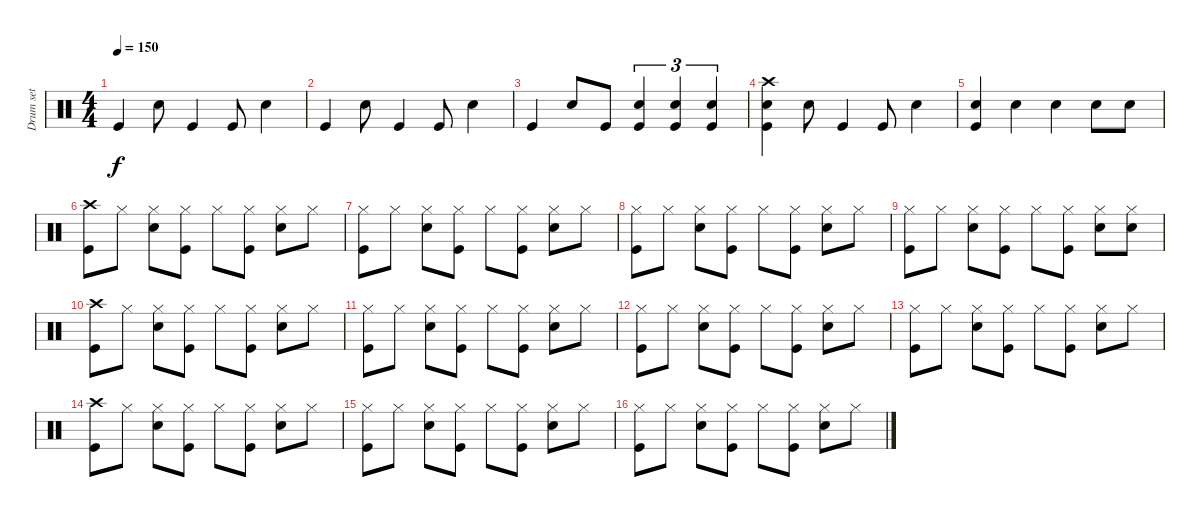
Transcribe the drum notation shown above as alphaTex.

\track ("Drum set" "Drum set") {instrument percussion}
\staff {score}
\articulation defaults
\ts (4 4)
\tempo 150
\clef neutral
\ks c "Kick (hit)".4{dy f} "Snare (hit) 2".8 "Kick (hit)".4 "Kick (hit)".8 "Snare (hit) 2".4
|
"Kick (hit)".4 "Snare (hit) 2".8 "Kick (hit)".4 "Kick (hit)".8 "Snare (hit) 2".4 |
"Kick (hit)".4 "Snare (hit) 2".8 "Kick (hit)".8 ("Snare (hit) 2" "Kick (hit)").4{tu (3 2)} ("Snare (hit) 2" "Kick (hit)").4{tu (3 2)} ("Snare (hit) 2" "Kick (hit)").4{tu (3 2)} |
("Crash high (hit)" "Snare (hit) 2" "Kick (hit)").4 "Snare (hit) 2".8 "Kick (hit)".4 "Kick (hit)".8 "Snare (hit) 2".4 |
("Snare (hit) 2" "Kick (hit)").4 "Snare (hit) 2".4 "Snare (hit) 2".4 "Snare (hit) 2".8 "Snare (hit) 2".8 |
("Crash high (hit)" "Kick (hit)").8 "Hi-Hat (closed)".8 ("Hi-Hat (closed)" "Snare (hit) 2").8 ("Hi-Hat (closed)" "Kick (hit)").8 "Hi-Hat (closed)".8 ("Hi-Hat (closed)" "Kick (hit)").8 ("Hi-Hat (closed)" "Snare (hit) 2").8 "Hi-Hat (closed)".8 |
("Hi-Hat (closed)" "Kick (hit)").8 "Hi-Hat (closed)".8 ("Hi-Hat (closed)" "Snare (hit) 2").8 ("Hi-Hat (closed)" "Kick (hit)").8 "Hi-Hat (closed)".8 ("Hi-Hat (closed)" "Kick (hit)").8 ("Hi-Hat (closed)" "Snare (hit) 2").8 "Hi-Hat (closed)".8 |
("Hi-Hat (closed)" "Kick (hit)").8 "Hi-Hat (closed)".8 ("Hi-Hat (closed)" "Snare (hit) 2").8 ("Hi-Hat (closed)" "Kick (hit)").8 "Hi-Hat (closed)".8 ("Hi-Hat (closed)" "Kick (hit)").8 ("Hi-Hat (closed)" "Snare (hit) 2").8 "Hi-Hat (closed)".8 |
("Hi-Hat (closed)" "Kick (hit)").8 "Hi-Hat (closed)".8 ("Hi-Hat (closed)" "Snare (hit) 2").8 ("Hi-Hat (closed)" "Kick (hit)").8 "Hi-Hat (closed)".8 ("Hi-Hat (closed)" "Kick (hit)").8 ("Hi-Hat (closed)" "Snare (hit) 2").8 ("Hi-Hat (closed)" "Snare (hit) 2").8 |
("Crash high (hit)" "Kick (hit)").8 "Hi-Hat (closed)".8 ("Hi-Hat (closed)" "Snare (hit) 2").8 ("Hi-Hat (closed)" "Kick (hit)").8 "Hi-Hat (closed)".8 ("Hi-Hat (closed)" "Kick (hit)").8 ("Hi-Hat (closed)" "Snare (hit) 2").8 "Hi-Hat (closed)".8 |
("Hi-Hat (closed)" "Kick (hit)").8 "Hi-Hat (closed)".8 ("Hi-Hat (closed)" "Snare (hit) 2").8 ("Hi-Hat (closed)" "Kick (hit)").8 "Hi-Hat (closed)".8 ("Hi-Hat (closed)" "Kick (hit)").8 ("Hi-Hat (closed)" "Snare (hit) 2").8 "Hi-Hat (closed)".8 |
("Hi-Hat (closed)" "Kick (hit)").8 "Hi-Hat (closed)".8 ("Hi-Hat (closed)" "Snare (hit) 2").8 ("Hi-Hat (closed)" "Kick (hit)").8 "Hi-Hat (closed)".8 ("Hi-Hat (closed)" "Kick (hit)").8 ("Hi-Hat (closed)" "Snare (hit) 2").8 "Hi-Hat (closed)".8 |
("Hi-Hat (closed)" "Kick (hit)").8 "Hi-Hat (closed)".8 ("Hi-Hat (closed)" "Snare (hit) 2").8 ("Hi-Hat (closed)" "Kick (hit)").8 "Hi-Hat (closed)".8 ("Hi-Hat (closed)" "Kick (hit)").8 ("Hi-Hat (closed)" "Snare (hit) 2").8 "Hi-Hat (closed)".8 |
("Crash high (hit)" "Kick (hit)").8 "Hi-Hat (closed)".8 ("Hi-Hat (closed)" "Snare (hit) 2").8 ("Hi-Hat (closed)" "Kick (hit)").8 "Hi-Hat (closed)".8 ("Hi-Hat (closed)" "Kick (hit)").8 ("Hi-Hat (closed)" "Snare (hit) 2").8 "Hi-Hat (closed)".8 |
("Hi-Hat (closed)" "Kick (hit)").8 "Hi-Hat (closed)".8 ("Hi-Hat (closed)" "Snare (hit) 2").8 ("Hi-Hat (closed)" "Kick (hit)").8 "Hi-Hat (closed)".8 ("Hi-Hat (closed)" "Kick (hit)").8 ("Hi-Hat (closed)" "Snare (hit) 2").8 "Hi-Hat (closed)".8 |
("Hi-Hat (closed)" "Kick (hit)").8 "Hi-Hat (closed)".8 ("Hi-Hat (closed)" "Snare (hit) 2").8 ("Hi-Hat (closed)" "Kick (hit)").8 "Hi-Hat (closed)".8 ("Hi-Hat (closed)" "Kick (hit)").8 ("Hi-Hat (closed)" "Snare (hit) 2").8 "Hi-Hat (closed)".8
